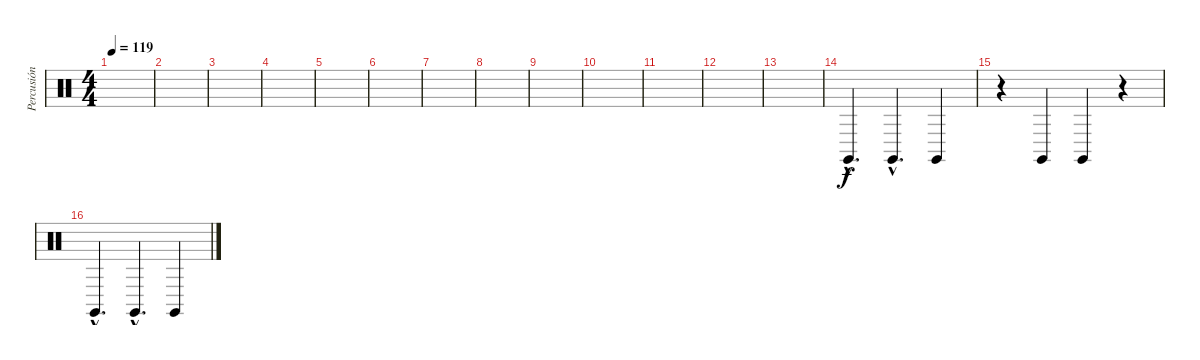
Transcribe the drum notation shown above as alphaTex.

\track ("Percusión" "Percusión") {instrument percussion}
\staff {score}
\articulation defaults
\ts (4 4)
\tempo 119
\clef neutral
\ks c
|
|
|
|
|
|
|
|
|
|
|
|
|
"Claves (hit)"{hac}.4{d} "Claves (hit)"{hac}.4{d} "Claves (hit)".4 |
r.4 "Claves (hit)".4 "Claves (hit)".4 r.4 |
"Claves (hit)"{hac}.4{d} "Claves (hit)"{hac}.4{d} "Claves (hit)".4
